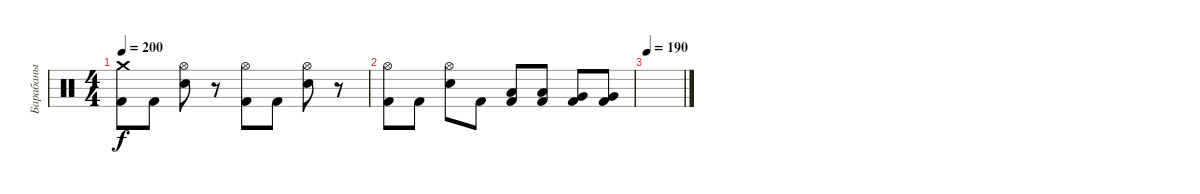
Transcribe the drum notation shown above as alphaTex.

\track ("Барабаны" "Барабаны") {instrument percussion}
\staff {score}
\articulation defaults
\ts (4 4)
\tempo 200
\clef neutral
\ks c
("Crash medium (hit)" "Kick (hit) 2").8{dy f} "Kick (hit) 2".8 ("Hi-Hat (open)" "Electric Snare (hit)").8 r.8 ("Hi-Hat (open)" "Kick (hit) 2").8 "Kick (hit) 2".8 ("Hi-Hat (open)" "Electric Snare (hit)").8 r.8 |
("Hi-Hat (open)" "Kick (hit) 2").8 "Kick (hit) 2".8 ("Hi-Hat (open)" "Electric Snare (hit)").8 "Kick (hit) 2".8 ("Low Tom (hit)" "Kick (hit) 2").8 ("Low Tom (hit)" "Kick (hit) 2").8 ("Very Low Tom (hit)" "Kick (hit) 2").8 ("Very Low Tom (hit)" "Kick (hit) 2").8 |
\tempo 190
